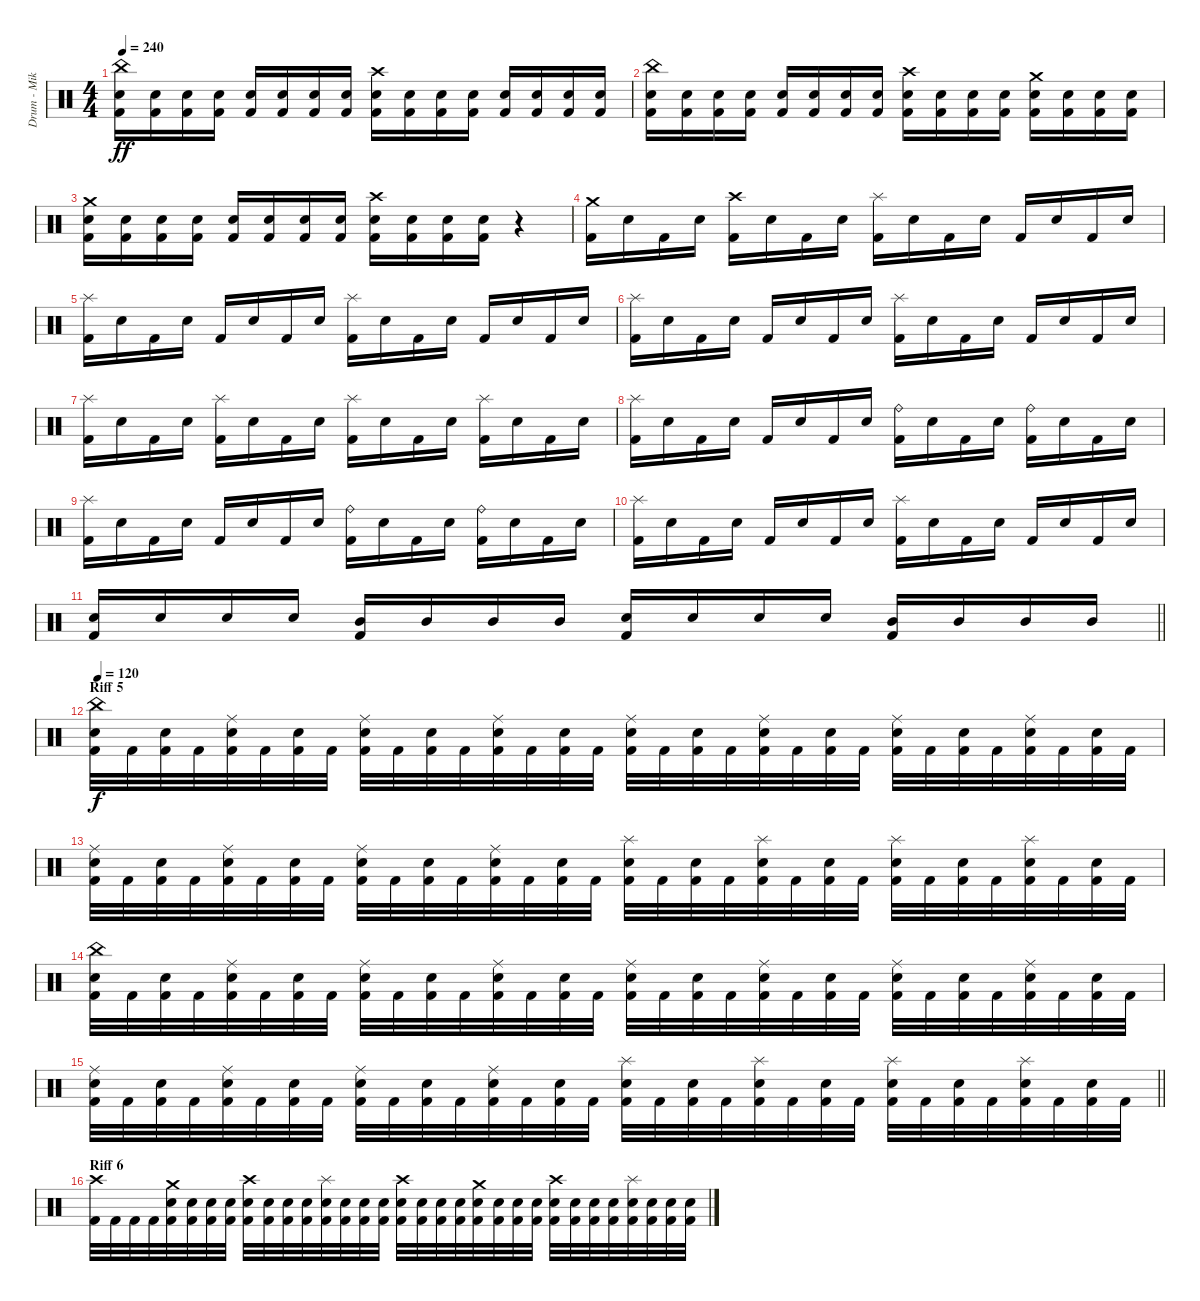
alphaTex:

\track ("Drum - Mike Collins" "Drum - Mik") {instrument percussion}
\staff {score}
\articulation defaults
\ts (4 4)
\tempo 240
\clef neutral
\ks c
("China (hit)" "Electric Snare (hit)" "Kick (hit) 2").16{dy ff} ("Electric Snare (hit)" "Kick (hit) 2").16 ("Electric Snare (hit)" "Kick (hit) 2").16 ("Electric Snare (hit)" "Kick (hit) 2").16 ("Electric Snare (hit)" "Kick (hit) 2").16 ("Electric Snare (hit)" "Kick (hit) 2").16 ("Electric Snare (hit)" "Kick (hit) 2").16 ("Electric Snare (hit)" "Kick (hit) 2").16 ("Crash high (hit)" "Electric Snare (hit)" "Kick (hit) 2").16 ("Electric Snare (hit)" "Kick (hit) 2").16 ("Electric Snare (hit)" "Kick (hit) 2").16 ("Electric Snare (hit)" "Kick (hit) 2").16 ("Electric Snare (hit)" "Kick (hit) 2").16 ("Electric Snare (hit)" "Kick (hit) 2").16 ("Electric Snare (hit)" "Kick (hit) 2").16 ("Electric Snare (hit)" "Kick (hit) 2").16 |
("China (hit)" "Electric Snare (hit)" "Kick (hit) 2").16 ("Electric Snare (hit)" "Kick (hit) 2").16 ("Electric Snare (hit)" "Kick (hit) 2").16 ("Electric Snare (hit)" "Kick (hit) 2").16 ("Electric Snare (hit)" "Kick (hit) 2").16 ("Electric Snare (hit)" "Kick (hit) 2").16 ("Electric Snare (hit)" "Kick (hit) 2").16 ("Electric Snare (hit)" "Kick (hit) 2").16 ("Crash high (hit)" "Electric Snare (hit)" "Kick (hit) 2").16 ("Electric Snare (hit)" "Kick (hit) 2").16 ("Electric Snare (hit)" "Kick (hit) 2").16 ("Electric Snare (hit)" "Kick (hit) 2").16 ("Crash medium (hit)" "Electric Snare (hit)" "Kick (hit) 2").16 ("Electric Snare (hit)" "Kick (hit) 2").16 ("Electric Snare (hit)" "Kick (hit) 2").16 ("Electric Snare (hit)" "Kick (hit) 2").16 |
("Crash medium (hit)" "Electric Snare (hit)" "Kick (hit) 2").16 ("Electric Snare (hit)" "Kick (hit) 2").16 ("Electric Snare (hit)" "Kick (hit) 2").16 ("Electric Snare (hit)" "Kick (hit) 2").16 ("Electric Snare (hit)" "Kick (hit) 2").16 ("Electric Snare (hit)" "Kick (hit) 2").16 ("Electric Snare (hit)" "Kick (hit) 2").16 ("Electric Snare (hit)" "Kick (hit) 2").16 ("Crash high (hit)" "Electric Snare (hit)" "Kick (hit) 2").16 ("Electric Snare (hit)" "Kick (hit) 2").16 ("Electric Snare (hit)" "Kick (hit) 2").16 ("Electric Snare (hit)" "Kick (hit) 2").16 r.4 |
("Crash medium (hit)" "Kick (hit) 2").16 "Electric Snare (hit)".16 "Kick (hit) 2".16 "Electric Snare (hit)".16 ("Crash high (hit)" "Kick (hit) 2").16 "Electric Snare (hit)".16 "Kick (hit) 2".16 "Electric Snare (hit)".16 ("Splash (hit)" "Kick (hit) 2").16 "Electric Snare (hit)".16 "Kick (hit) 2".16 "Electric Snare (hit)".16 "Kick (hit) 2".16 "Electric Snare (hit)".16 "Kick (hit) 2".16 "Electric Snare (hit)".16 |
("Splash (hit)" "Kick (hit) 2").16 "Electric Snare (hit)".16 "Kick (hit) 2".16 "Electric Snare (hit)".16 "Kick (hit) 2".16 "Electric Snare (hit)".16 "Kick (hit) 2".16 "Electric Snare (hit)".16 ("Splash (hit)" "Kick (hit) 2").16 "Electric Snare (hit)".16 "Kick (hit) 2".16 "Electric Snare (hit)".16 "Kick (hit) 2".16 "Electric Snare (hit)".16 "Kick (hit) 2".16 "Electric Snare (hit)".16 |
("Splash (hit)" "Kick (hit) 2").16 "Electric Snare (hit)".16 "Kick (hit) 2".16 "Electric Snare (hit)".16 "Kick (hit) 2".16 "Electric Snare (hit)".16 "Kick (hit) 2".16 "Electric Snare (hit)".16 ("Splash (hit)" "Kick (hit) 2").16 "Electric Snare (hit)".16 "Kick (hit) 2".16 "Electric Snare (hit)".16 "Kick (hit) 2".16 "Electric Snare (hit)".16 "Kick (hit) 2".16 "Electric Snare (hit)".16 |
("Splash (hit)" "Kick (hit) 2").16 "Electric Snare (hit)".16 "Kick (hit) 2".16 "Electric Snare (hit)".16 ("Splash (hit)" "Kick (hit) 2").16 "Electric Snare (hit)".16 "Kick (hit) 2".16 "Electric Snare (hit)".16 ("Splash (hit)" "Kick (hit) 2").16 "Electric Snare (hit)".16 "Kick (hit) 2".16 "Electric Snare (hit)".16 ("Splash (hit)" "Kick (hit) 2").16 "Electric Snare (hit)".16 "Kick (hit) 2".16 "Electric Snare (hit)".16 |
("Splash (hit)" "Kick (hit) 2").16 "Electric Snare (hit)".16 "Kick (hit) 2".16 "Electric Snare (hit)".16 "Kick (hit) 2".16 "Electric Snare (hit)".16 "Kick (hit) 2".16 "Electric Snare (hit)".16 ("Ride (bell)" "Kick (hit) 2").16 "Electric Snare (hit)".16 "Kick (hit) 2".16 "Electric Snare (hit)".16 ("Ride (bell)" "Kick (hit) 2").16 "Electric Snare (hit)".16 "Kick (hit) 2".16 "Electric Snare (hit)".16 |
("Splash (hit)" "Kick (hit) 2").16 "Electric Snare (hit)".16 "Kick (hit) 2".16 "Electric Snare (hit)".16 "Kick (hit) 2".16 "Electric Snare (hit)".16 "Kick (hit) 2".16 "Electric Snare (hit)".16 ("Ride (bell)" "Kick (hit) 2").16 "Electric Snare (hit)".16 "Kick (hit) 2".16 "Electric Snare (hit)".16 ("Ride (bell)" "Kick (hit) 2").16 "Electric Snare (hit)".16 "Kick (hit) 2".16 "Electric Snare (hit)".16 |
("Splash (hit)" "Kick (hit) 2").16 "Electric Snare (hit)".16 "Kick (hit) 2".16 "Electric Snare (hit)".16 "Kick (hit) 2".16 "Electric Snare (hit)".16 "Kick (hit) 2".16 "Electric Snare (hit)".16 ("Splash (hit)" "Kick (hit) 2").16 "Electric Snare (hit)".16 "Kick (hit) 2".16 "Electric Snare (hit)".16 "Kick (hit) 2".16 "Electric Snare (hit)".16 "Kick (hit) 2".16 "Electric Snare (hit)".16 |
\barLineRight lightlight
("Electric Snare (hit)" "Kick (hit) 2").16 "Electric Snare (hit)".16 "Electric Snare (hit)".16 "Electric Snare (hit)".16 ("Mid Tom (hit)" "Kick (hit) 2").16 "Mid Tom (hit)".16 "Mid Tom (hit)".16 "Mid Tom (hit)".16 ("Electric Snare (hit)" "Kick (hit) 2").16 "Electric Snare (hit)".16 "Electric Snare (hit)".16 "Electric Snare (hit)".16 ("Mid Tom (hit)" "Kick (hit) 2").16 "Mid Tom (hit)".16 "Mid Tom (hit)".16 "Mid Tom (hit)".16 |
\section ("" "Riff 5")
\tempo 120
("China (hit)" "Electric Snare (hit)" "Kick (hit) 2").32{dy f} "Kick (hit) 2".32 ("Electric Snare (hit)" "Kick (hit) 2").32 "Kick (hit) 2".32 ("Ride (middle)" "Electric Snare (hit)" "Kick (hit) 2").32 "Kick (hit) 2".32 ("Electric Snare (hit)" "Kick (hit) 2").32 "Kick (hit) 2".32 ("Ride (middle)" "Electric Snare (hit)" "Kick (hit) 2").32 "Kick (hit) 2".32 ("Electric Snare (hit)" "Kick (hit) 2").32 "Kick (hit) 2".32 ("Ride (middle)" "Electric Snare (hit)" "Kick (hit) 2").32 "Kick (hit) 2".32 ("Electric Snare (hit)" "Kick (hit) 2").32 "Kick (hit) 2".32 ("Ride (middle)" "Electric Snare (hit)" "Kick (hit) 2").32 "Kick (hit) 2".32 ("Electric Snare (hit)" "Kick (hit) 2").32 "Kick (hit) 2".32 ("Ride (middle)" "Electric Snare (hit)" "Kick (hit) 2").32 "Kick (hit) 2".32 ("Electric Snare (hit)" "Kick (hit) 2").32 "Kick (hit) 2".32 ("Ride (middle)" "Electric Snare (hit)" "Kick (hit) 2").32 "Kick (hit) 2".32 ("Electric Snare (hit)" "Kick (hit) 2").32 "Kick (hit) 2".32 ("Ride (middle)" "Electric Snare (hit)" "Kick (hit) 2").32 "Kick (hit) 2".32 ("Electric Snare (hit)" "Kick (hit) 2").32 "Kick (hit) 2".32 |
("Ride (middle)" "Electric Snare (hit)" "Kick (hit) 2").32 "Kick (hit) 2".32 ("Electric Snare (hit)" "Kick (hit) 2").32 "Kick (hit) 2".32 ("Ride (middle)" "Electric Snare (hit)" "Kick (hit) 2").32 "Kick (hit) 2".32 ("Electric Snare (hit)" "Kick (hit) 2").32 "Kick (hit) 2".32 ("Ride (middle)" "Electric Snare (hit)" "Kick (hit) 2").32 "Kick (hit) 2".32 ("Electric Snare (hit)" "Kick (hit) 2").32 "Kick (hit) 2".32 ("Ride (middle)" "Electric Snare (hit)" "Kick (hit) 2").32 "Kick (hit) 2".32 ("Electric Snare (hit)" "Kick (hit) 2").32 "Kick (hit) 2".32 ("Splash (hit)" "Electric Snare (hit)" "Kick (hit) 2").32 "Kick (hit) 2".32 ("Electric Snare (hit)" "Kick (hit) 2").32 "Kick (hit) 2".32 ("Splash (hit)" "Electric Snare (hit)" "Kick (hit) 2").32 "Kick (hit) 2".32 ("Electric Snare (hit)" "Kick (hit) 2").32 "Kick (hit) 2".32 ("Splash (hit)" "Electric Snare (hit)" "Kick (hit) 2").32 "Kick (hit) 2".32 ("Electric Snare (hit)" "Kick (hit) 2").32 "Kick (hit) 2".32 ("Splash (hit)" "Electric Snare (hit)" "Kick (hit) 2").32 "Kick (hit) 2".32 ("Electric Snare (hit)" "Kick (hit) 2").32 "Kick (hit) 2".32 |
("China (hit)" "Electric Snare (hit)" "Kick (hit) 2").32 "Kick (hit) 2".32 ("Electric Snare (hit)" "Kick (hit) 2").32 "Kick (hit) 2".32 ("Ride (middle)" "Electric Snare (hit)" "Kick (hit) 2").32 "Kick (hit) 2".32 ("Electric Snare (hit)" "Kick (hit) 2").32 "Kick (hit) 2".32 ("Ride (middle)" "Electric Snare (hit)" "Kick (hit) 2").32 "Kick (hit) 2".32 ("Electric Snare (hit)" "Kick (hit) 2").32 "Kick (hit) 2".32 ("Ride (middle)" "Electric Snare (hit)" "Kick (hit) 2").32 "Kick (hit) 2".32 ("Electric Snare (hit)" "Kick (hit) 2").32 "Kick (hit) 2".32 ("Ride (middle)" "Electric Snare (hit)" "Kick (hit) 2").32 "Kick (hit) 2".32 ("Electric Snare (hit)" "Kick (hit) 2").32 "Kick (hit) 2".32 ("Ride (middle)" "Electric Snare (hit)" "Kick (hit) 2").32 "Kick (hit) 2".32 ("Electric Snare (hit)" "Kick (hit) 2").32 "Kick (hit) 2".32 ("Ride (middle)" "Electric Snare (hit)" "Kick (hit) 2").32 "Kick (hit) 2".32 ("Electric Snare (hit)" "Kick (hit) 2").32 "Kick (hit) 2".32 ("Ride (middle)" "Electric Snare (hit)" "Kick (hit) 2").32 "Kick (hit) 2".32 ("Electric Snare (hit)" "Kick (hit) 2").32 "Kick (hit) 2".32 |
\barLineRight lightlight
("Ride (middle)" "Electric Snare (hit)" "Kick (hit) 2").32 "Kick (hit) 2".32 ("Electric Snare (hit)" "Kick (hit) 2").32 "Kick (hit) 2".32 ("Ride (middle)" "Electric Snare (hit)" "Kick (hit) 2").32 "Kick (hit) 2".32 ("Electric Snare (hit)" "Kick (hit) 2").32 "Kick (hit) 2".32 ("Ride (middle)" "Electric Snare (hit)" "Kick (hit) 2").32 "Kick (hit) 2".32 ("Electric Snare (hit)" "Kick (hit) 2").32 "Kick (hit) 2".32 ("Ride (middle)" "Electric Snare (hit)" "Kick (hit) 2").32 "Kick (hit) 2".32 ("Electric Snare (hit)" "Kick (hit) 2").32 "Kick (hit) 2".32 ("Splash (hit)" "Electric Snare (hit)" "Kick (hit) 2").32 "Kick (hit) 2".32 ("Electric Snare (hit)" "Kick (hit) 2").32 "Kick (hit) 2".32 ("Splash (hit)" "Electric Snare (hit)" "Kick (hit) 2").32 "Kick (hit) 2".32 ("Electric Snare (hit)" "Kick (hit) 2").32 "Kick (hit) 2".32 ("Splash (hit)" "Electric Snare (hit)" "Kick (hit) 2").32 "Kick (hit) 2".32 ("Electric Snare (hit)" "Kick (hit) 2").32 "Kick (hit) 2".32 ("Splash (hit)" "Electric Snare (hit)" "Kick (hit) 2").32 "Kick (hit) 2".32 ("Electric Snare (hit)" "Kick (hit) 2").32 "Kick (hit) 2".32 |
\section ("" "Riff 6")
("Crash high (hit)" "Kick (hit) 2").32 "Kick (hit) 2".32 "Kick (hit) 2".32 "Kick (hit) 2".32 ("Crash medium (hit)" "Electric Snare (hit)" "Kick (hit) 2").32 ("Electric Snare (hit)" "Kick (hit) 2").32 ("Electric Snare (hit)" "Kick (hit) 2").32 ("Electric Snare (hit)" "Kick (hit) 2").32 ("Crash high (hit)" "Electric Snare (hit)" "Kick (hit) 2").32 ("Electric Snare (hit)" "Kick (hit) 2").32 ("Electric Snare (hit)" "Kick (hit) 2").32 ("Electric Snare (hit)" "Kick (hit) 2").32 ("Splash (hit)" "Electric Snare (hit)" "Kick (hit) 2").32 ("Electric Snare (hit)" "Kick (hit) 2").32 ("Electric Snare (hit)" "Kick (hit) 2").32 ("Electric Snare (hit)" "Kick (hit) 2").32 ("Crash high (hit)" "Electric Snare (hit)" "Kick (hit) 2").32 ("Electric Snare (hit)" "Kick (hit) 2").32 ("Electric Snare (hit)" "Kick (hit) 2").32 ("Electric Snare (hit)" "Kick (hit) 2").32 ("Crash medium (hit)" "Electric Snare (hit)" "Kick (hit) 2").32 ("Electric Snare (hit)" "Kick (hit) 2").32 ("Electric Snare (hit)" "Kick (hit) 2").32 ("Electric Snare (hit)" "Kick (hit) 2").32 ("Crash high (hit)" "Electric Snare (hit)" "Kick (hit) 2").32 ("Electric Snare (hit)" "Kick (hit) 2").32 ("Electric Snare (hit)" "Kick (hit) 2").32 ("Electric Snare (hit)" "Kick (hit) 2").32 ("Splash (hit)" "Electric Snare (hit)" "Kick (hit) 2").32 ("Electric Snare (hit)" "Kick (hit) 2").32 ("Electric Snare (hit)" "Kick (hit) 2").32 ("Electric Snare (hit)" "Kick (hit) 2").32
